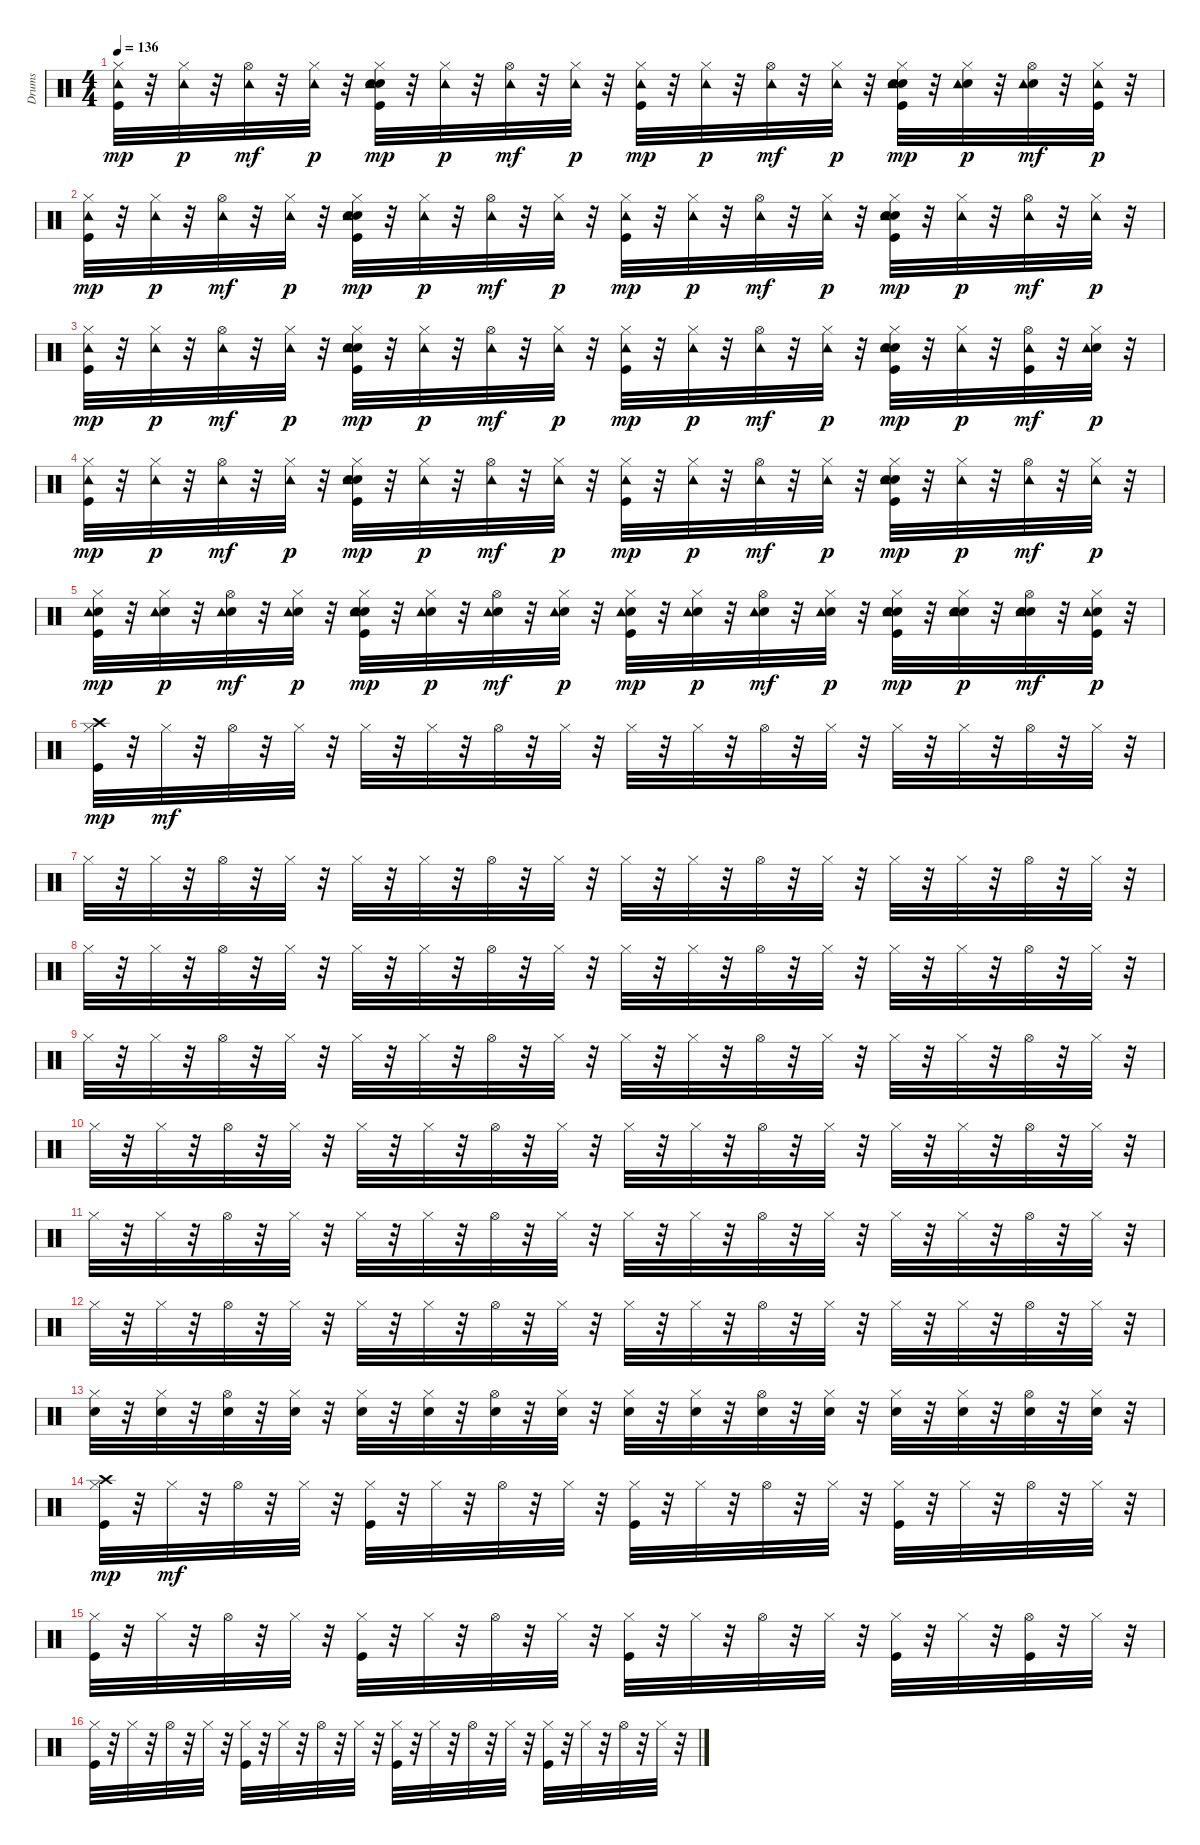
\track ("Drums" "Drums") {instrument percussion}
\staff {score}
\articulation defaults
\ts (4 4)
\tempo 136
\clef neutral
\ks c
("Kick (hit)" "Hi-Hat (closed)" "Tambourine (hit)").32{dy mp} r.32 ("Hi-Hat (closed)" "Tambourine (hit)").32{dy p} r.32 ("Hi-Hat (open)" "Tambourine (hit)").32{dy mf} r.32 ("Hi-Hat (closed)" "Tambourine (hit)").32{dy p} r.32 ("Kick (hit)" "Snare (hit) 2" "Hand Clap (hit)" "Hi-Hat (closed)" "Tambourine (hit)").32{dy mp} r.32 ("Hi-Hat (closed)" "Tambourine (hit)").32{dy p} r.32 ("Hi-Hat (open)" "Tambourine (hit)").32{dy mf} r.32 ("Hi-Hat (closed)" "Tambourine (hit)").32{dy p} r.32 ("Kick (hit)" "Hi-Hat (closed)" "Tambourine (hit)").32{dy mp} r.32 ("Hi-Hat (closed)" "Tambourine (hit)").32{dy p} r.32 ("Hi-Hat (open)" "Tambourine (hit)").32{dy mf} r.32 ("Hi-Hat (closed)" "Tambourine (hit)").32{dy p} r.32 ("Kick (hit)" "Snare (hit) 2" "Hand Clap (hit)" "Hi-Hat (closed)" "Tambourine (hit)").32{dy mp} r.32 ("Hand Clap (hit)" "Hi-Hat (closed)" "Tambourine (hit)").32{dy p} r.32 ("Hand Clap (hit)" "Hi-Hat (open)" "Tambourine (hit)").32{dy mf} r.32 ("Kick (hit)" "Hi-Hat (closed)" "Tambourine (hit)").32{dy p} r.32 |
("Kick (hit)" "Hi-Hat (closed)" "Tambourine (hit)").32{dy mp} r.32 ("Hi-Hat (closed)" "Tambourine (hit)").32{dy p} r.32 ("Hi-Hat (open)" "Tambourine (hit)").32{dy mf} r.32 ("Hi-Hat (closed)" "Tambourine (hit)").32{dy p} r.32 ("Kick (hit)" "Snare (hit) 2" "Hand Clap (hit)" "Hi-Hat (closed)" "Tambourine (hit)").32{dy mp} r.32 ("Hi-Hat (closed)" "Tambourine (hit)").32{dy p} r.32 ("Hi-Hat (open)" "Tambourine (hit)").32{dy mf} r.32 ("Hi-Hat (closed)" "Tambourine (hit)").32{dy p} r.32 ("Kick (hit)" "Hi-Hat (closed)" "Tambourine (hit)").32{dy mp} r.32 ("Hi-Hat (closed)" "Tambourine (hit)").32{dy p} r.32 ("Hi-Hat (open)" "Tambourine (hit)").32{dy mf} r.32 ("Hi-Hat (closed)" "Tambourine (hit)").32{dy p} r.32 ("Kick (hit)" "Snare (hit) 2" "Hand Clap (hit)" "Hi-Hat (closed)" "Tambourine (hit)").32{dy mp} r.32 ("Hi-Hat (closed)" "Tambourine (hit)").32{dy p} r.32 ("Hi-Hat (open)" "Tambourine (hit)").32{dy mf} r.32 ("Hi-Hat (closed)" "Tambourine (hit)").32{dy p} r.32 |
("Kick (hit)" "Hi-Hat (closed)" "Tambourine (hit)").32{dy mp} r.32 ("Hi-Hat (closed)" "Tambourine (hit)").32{dy p} r.32 ("Hi-Hat (open)" "Tambourine (hit)").32{dy mf} r.32 ("Hi-Hat (closed)" "Tambourine (hit)").32{dy p} r.32 ("Kick (hit)" "Snare (hit) 2" "Hand Clap (hit)" "Hi-Hat (closed)" "Tambourine (hit)").32{dy mp} r.32 ("Hi-Hat (closed)" "Tambourine (hit)").32{dy p} r.32 ("Hi-Hat (open)" "Tambourine (hit)").32{dy mf} r.32 ("Hi-Hat (closed)" "Tambourine (hit)").32{dy p} r.32 ("Kick (hit)" "Hi-Hat (closed)" "Tambourine (hit)").32{dy mp} r.32 ("Hi-Hat (closed)" "Tambourine (hit)").32{dy p} r.32 ("Hi-Hat (open)" "Tambourine (hit)").32{dy mf} r.32 ("Hi-Hat (closed)" "Tambourine (hit)").32{dy p} r.32 ("Kick (hit)" "Snare (hit) 2" "Hand Clap (hit)" "Hi-Hat (closed)" "Tambourine (hit)").32{dy mp} r.32 ("Hi-Hat (closed)" "Tambourine (hit)").32{dy p} r.32 ("Kick (hit)" "Hi-Hat (open)" "Tambourine (hit)").32{dy mf} r.32 ("Hand Clap (hit)" "Hi-Hat (closed)" "Tambourine (hit)").32{dy p} r.32 |
("Kick (hit)" "Hi-Hat (closed)" "Tambourine (hit)").32{dy mp} r.32 ("Hi-Hat (closed)" "Tambourine (hit)").32{dy p} r.32 ("Hi-Hat (open)" "Tambourine (hit)").32{dy mf} r.32 ("Hi-Hat (closed)" "Tambourine (hit)").32{dy p} r.32 ("Kick (hit)" "Snare (hit) 2" "Hand Clap (hit)" "Hi-Hat (closed)" "Tambourine (hit)").32{dy mp} r.32 ("Hi-Hat (closed)" "Tambourine (hit)").32{dy p} r.32 ("Hi-Hat (open)" "Tambourine (hit)").32{dy mf} r.32 ("Hi-Hat (closed)" "Tambourine (hit)").32{dy p} r.32 ("Kick (hit)" "Hi-Hat (closed)" "Tambourine (hit)").32{dy mp} r.32 ("Hi-Hat (closed)" "Tambourine (hit)").32{dy p} r.32 ("Hi-Hat (open)" "Tambourine (hit)").32{dy mf} r.32 ("Hi-Hat (closed)" "Tambourine (hit)").32{dy p} r.32 ("Kick (hit)" "Snare (hit) 2" "Hand Clap (hit)" "Hi-Hat (closed)" "Tambourine (hit)").32{dy mp} r.32 ("Hi-Hat (closed)" "Tambourine (hit)").32{dy p} r.32 ("Hi-Hat (open)" "Tambourine (hit)").32{dy mf} r.32 ("Hi-Hat (closed)" "Tambourine (hit)").32{dy p} r.32 |
("Kick (hit)" "Snare (hit) 2" "Hi-Hat (closed)" "Tambourine (hit)").32{dy mp} r.32 ("Snare (hit) 2" "Hi-Hat (closed)" "Tambourine (hit)").32{dy p} r.32 ("Snare (hit) 2" "Hi-Hat (open)" "Tambourine (hit)").32{dy mf} r.32 ("Snare (hit) 2" "Hi-Hat (closed)" "Tambourine (hit)").32{dy p} r.32 ("Kick (hit)" "Snare (hit) 2" "Hand Clap (hit)" "Hi-Hat (closed)" "Tambourine (hit)").32{dy mp} r.32 ("Snare (hit) 2" "Hi-Hat (closed)" "Tambourine (hit)").32{dy p} r.32 ("Snare (hit) 2" "Hi-Hat (open)" "Tambourine (hit)").32{dy mf} r.32 ("Snare (hit) 2" "Hi-Hat (closed)" "Tambourine (hit)").32{dy p} r.32 ("Kick (hit)" "Snare (hit) 2" "Hi-Hat (closed)" "Tambourine (hit)").32{dy mp} r.32 ("Snare (hit) 2" "Hi-Hat (closed)" "Tambourine (hit)").32{dy p} r.32 ("Snare (hit) 2" "Hi-Hat (open)" "Tambourine (hit)").32{dy mf} r.32 ("Snare (hit) 2" "Hi-Hat (closed)" "Tambourine (hit)").32{dy p} r.32 ("Kick (hit)" "Snare (hit) 2" "Hand Clap (hit)" "Hi-Hat (closed)" "Tambourine (hit)").32{dy mp} r.32 ("Snare (hit) 2" "Hand Clap (hit)" "Hi-Hat (closed)" "Tambourine (hit)").32{dy p} r.32 ("Snare (hit) 2" "Hand Clap (hit)" "Hi-Hat (open)" "Tambourine (hit)").32{dy mf} r.32 ("Kick (hit)" "Snare (hit) 2" "Hi-Hat (closed)" "Tambourine (hit)").32{dy p} r.32 |
("Kick (hit)" "Hi-Hat (closed)" "Crash high (hit)").32{dy mp} r.32 "Hi-Hat (closed)".32{dy mf} r.32 "Hi-Hat (open)".32 r.32 "Hi-Hat (closed)".32 r.32 "Hi-Hat (closed)".32 r.32 "Hi-Hat (closed)".32 r.32 "Hi-Hat (open)".32 r.32 "Hi-Hat (closed)".32 r.32 "Hi-Hat (closed)".32 r.32 "Hi-Hat (closed)".32 r.32 "Hi-Hat (open)".32 r.32 "Hi-Hat (closed)".32 r.32 "Hi-Hat (closed)".32 r.32 "Hi-Hat (closed)".32 r.32 "Hi-Hat (open)".32 r.32 "Hi-Hat (closed)".32 r.32 |
"Hi-Hat (closed)".32 r.32 "Hi-Hat (closed)".32 r.32 "Hi-Hat (open)".32 r.32 "Hi-Hat (closed)".32 r.32 "Hi-Hat (closed)".32 r.32 "Hi-Hat (closed)".32 r.32 "Hi-Hat (open)".32 r.32 "Hi-Hat (closed)".32 r.32 "Hi-Hat (closed)".32 r.32 "Hi-Hat (closed)".32 r.32 "Hi-Hat (open)".32 r.32 "Hi-Hat (closed)".32 r.32 "Hi-Hat (closed)".32 r.32 "Hi-Hat (closed)".32 r.32 "Hi-Hat (open)".32 r.32 "Hi-Hat (closed)".32 r.32 |
"Hi-Hat (closed)".32 r.32 "Hi-Hat (closed)".32 r.32 "Hi-Hat (open)".32 r.32 "Hi-Hat (closed)".32 r.32 "Hi-Hat (closed)".32 r.32 "Hi-Hat (closed)".32 r.32 "Hi-Hat (open)".32 r.32 "Hi-Hat (closed)".32 r.32 "Hi-Hat (closed)".32 r.32 "Hi-Hat (closed)".32 r.32 "Hi-Hat (open)".32 r.32 "Hi-Hat (closed)".32 r.32 "Hi-Hat (closed)".32 r.32 "Hi-Hat (closed)".32 r.32 "Hi-Hat (open)".32 r.32 "Hi-Hat (closed)".32 r.32 |
"Hi-Hat (closed)".32 r.32 "Hi-Hat (closed)".32 r.32 "Hi-Hat (open)".32 r.32 "Hi-Hat (closed)".32 r.32 "Hi-Hat (closed)".32 r.32 "Hi-Hat (closed)".32 r.32 "Hi-Hat (open)".32 r.32 "Hi-Hat (closed)".32 r.32 "Hi-Hat (closed)".32 r.32 "Hi-Hat (closed)".32 r.32 "Hi-Hat (open)".32 r.32 "Hi-Hat (closed)".32 r.32 "Hi-Hat (closed)".32 r.32 "Hi-Hat (closed)".32 r.32 "Hi-Hat (open)".32 r.32 "Hi-Hat (closed)".32 r.32 |
"Hi-Hat (closed)".32 r.32 "Hi-Hat (closed)".32 r.32 "Hi-Hat (open)".32 r.32 "Hi-Hat (closed)".32 r.32 "Hi-Hat (closed)".32 r.32 "Hi-Hat (closed)".32 r.32 "Hi-Hat (open)".32 r.32 "Hi-Hat (closed)".32 r.32 "Hi-Hat (closed)".32 r.32 "Hi-Hat (closed)".32 r.32 "Hi-Hat (open)".32 r.32 "Hi-Hat (closed)".32 r.32 "Hi-Hat (closed)".32 r.32 "Hi-Hat (closed)".32 r.32 "Hi-Hat (open)".32 r.32 "Hi-Hat (closed)".32 r.32 |
"Hi-Hat (closed)".32 r.32 "Hi-Hat (closed)".32 r.32 "Hi-Hat (open)".32 r.32 "Hi-Hat (closed)".32 r.32 "Hi-Hat (closed)".32 r.32 "Hi-Hat (closed)".32 r.32 "Hi-Hat (open)".32 r.32 "Hi-Hat (closed)".32 r.32 "Hi-Hat (closed)".32 r.32 "Hi-Hat (closed)".32 r.32 "Hi-Hat (open)".32 r.32 "Hi-Hat (closed)".32 r.32 "Hi-Hat (closed)".32 r.32 "Hi-Hat (closed)".32 r.32 "Hi-Hat (open)".32 r.32 "Hi-Hat (closed)".32 r.32 |
"Hi-Hat (closed)".32 r.32 "Hi-Hat (closed)".32 r.32 "Hi-Hat (open)".32 r.32 "Hi-Hat (closed)".32 r.32 "Hi-Hat (closed)".32 r.32 "Hi-Hat (closed)".32 r.32 "Hi-Hat (open)".32 r.32 "Hi-Hat (closed)".32 r.32 "Hi-Hat (closed)".32 r.32 "Hi-Hat (closed)".32 r.32 "Hi-Hat (open)".32 r.32 "Hi-Hat (closed)".32 r.32 "Hi-Hat (closed)".32 r.32 "Hi-Hat (closed)".32 r.32 "Hi-Hat (open)".32 r.32 "Hi-Hat (closed)".32 r.32 |
("Snare (hit) 2" "Hi-Hat (closed)").32 r.32 ("Snare (hit) 2" "Hi-Hat (closed)").32 r.32 ("Snare (hit) 2" "Hi-Hat (open)").32 r.32 ("Snare (hit) 2" "Hi-Hat (closed)").32 r.32 ("Snare (hit) 2" "Hi-Hat (closed)").32 r.32 ("Snare (hit) 2" "Hi-Hat (closed)").32 r.32 ("Snare (hit) 2" "Hi-Hat (open)").32 r.32 ("Snare (hit) 2" "Hi-Hat (closed)").32 r.32 ("Snare (hit) 2" "Hi-Hat (closed)").32 r.32 ("Snare (hit) 2" "Hi-Hat (closed)").32 r.32 ("Snare (hit) 2" "Hi-Hat (open)").32 r.32 ("Snare (hit) 2" "Hi-Hat (closed)").32 r.32 ("Snare (hit) 2" "Hi-Hat (closed)").32 r.32 ("Snare (hit) 2" "Hi-Hat (closed)").32 r.32 ("Snare (hit) 2" "Hi-Hat (open)").32 r.32 ("Snare (hit) 2" "Hi-Hat (closed)").32 r.32 |
("Kick (hit)" "Hi-Hat (closed)" "Crash high (hit)").32{dy mp} r.32 "Hi-Hat (closed)".32{dy mf} r.32 "Hi-Hat (open)".32 r.32 "Hi-Hat (closed)".32 r.32 ("Kick (hit)" "Hi-Hat (closed)").32 r.32 "Hi-Hat (closed)".32 r.32 "Hi-Hat (open)".32 r.32 "Hi-Hat (closed)".32 r.32 ("Kick (hit)" "Hi-Hat (closed)").32 r.32 "Hi-Hat (closed)".32 r.32 "Hi-Hat (open)".32 r.32 "Hi-Hat (closed)".32 r.32 ("Kick (hit)" "Hi-Hat (closed)").32 r.32 "Hi-Hat (closed)".32 r.32 "Hi-Hat (open)".32 r.32 "Hi-Hat (closed)".32 r.32 |
("Kick (hit)" "Hi-Hat (closed)").32 r.32 "Hi-Hat (closed)".32 r.32 "Hi-Hat (open)".32 r.32 "Hi-Hat (closed)".32 r.32 ("Kick (hit)" "Hi-Hat (closed)").32 r.32 "Hi-Hat (closed)".32 r.32 "Hi-Hat (open)".32 r.32 "Hi-Hat (closed)".32 r.32 ("Kick (hit)" "Hi-Hat (closed)").32 r.32 "Hi-Hat (closed)".32 r.32 "Hi-Hat (open)".32 r.32 "Hi-Hat (closed)".32 r.32 ("Kick (hit)" "Hi-Hat (closed)").32 r.32 "Hi-Hat (closed)".32 r.32 ("Kick (hit)" "Hi-Hat (open)").32 r.32 "Hi-Hat (closed)".32 r.32 |
("Kick (hit)" "Hi-Hat (closed)").32 r.32 "Hi-Hat (closed)".32 r.32 "Hi-Hat (open)".32 r.32 "Hi-Hat (closed)".32 r.32 ("Kick (hit)" "Hi-Hat (closed)").32 r.32 "Hi-Hat (closed)".32 r.32 "Hi-Hat (open)".32 r.32 "Hi-Hat (closed)".32 r.32 ("Kick (hit)" "Hi-Hat (closed)").32 r.32 "Hi-Hat (closed)".32 r.32 "Hi-Hat (open)".32 r.32 "Hi-Hat (closed)".32 r.32 ("Kick (hit)" "Hi-Hat (closed)").32 r.32 "Hi-Hat (closed)".32 r.32 "Hi-Hat (open)".32 r.32 "Hi-Hat (closed)".32 r.32
